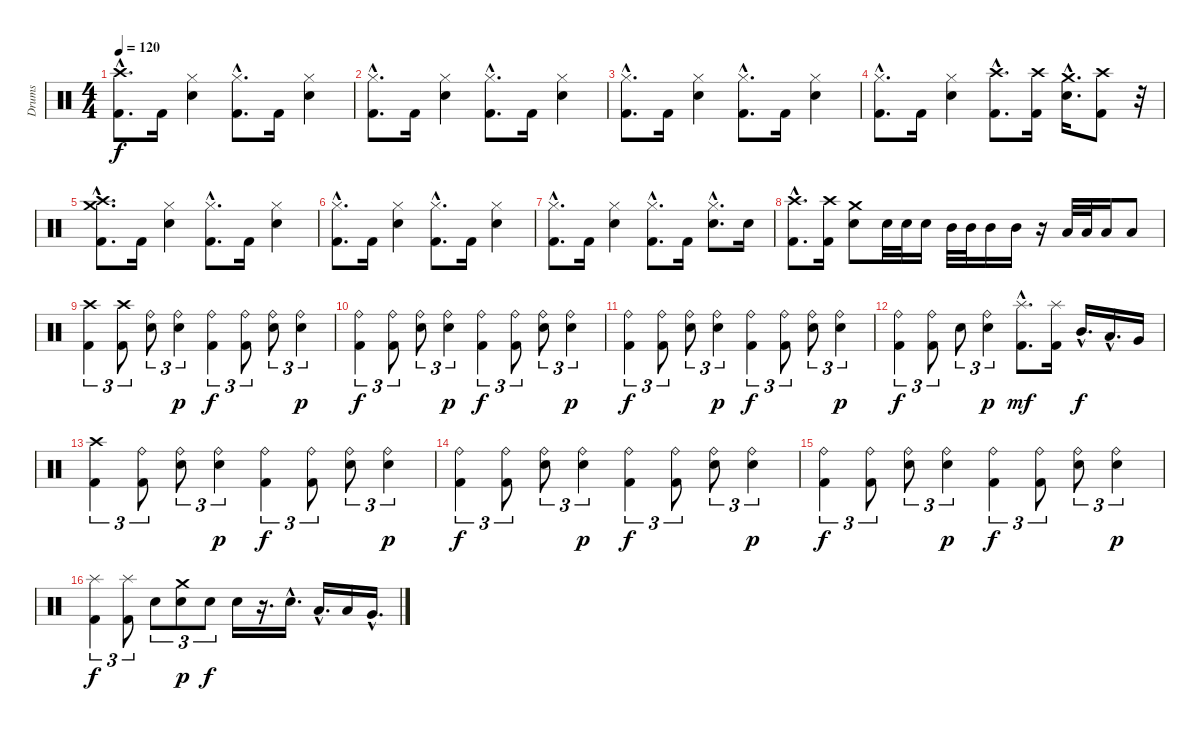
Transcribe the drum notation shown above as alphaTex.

\track ("Drums" "Drums") {instrument percussion}
\staff {score}
\articulation defaults
\ts (4 4)
\tempo 120
\clef neutral
\ks c
("Crash high (hit)"{hac} "Kick (hit) 2"{hac}).8{d dy f} "Kick (hit) 2".16 ("Hi-Hat (closed)" "Snare (hit) 2").4 ("Hi-Hat (closed)"{hac} "Kick (hit) 2"{hac}).8{d} "Kick (hit) 2".16 ("Hi-Hat (closed)" "Snare (hit) 2").4 |
("Hi-Hat (closed)"{hac} "Kick (hit) 2"{hac}).8{d} "Kick (hit) 2".16 ("Hi-Hat (closed)" "Snare (hit) 2").4 ("Hi-Hat (closed)"{hac} "Kick (hit) 2"{hac}).8{d} "Kick (hit) 2".16 ("Hi-Hat (closed)" "Snare (hit) 2").4 |
("Hi-Hat (closed)"{hac} "Kick (hit) 2"{hac}).8{d} "Kick (hit) 2".16 ("Hi-Hat (closed)" "Snare (hit) 2").4 ("Hi-Hat (closed)"{hac} "Kick (hit) 2"{hac}).8{d} "Kick (hit) 2".16 ("Hi-Hat (closed)" "Snare (hit) 2").4 |
("Hi-Hat (closed)"{hac} "Kick (hit) 2"{hac}).8{d} "Kick (hit) 2".16 ("Hi-Hat (closed)" "Snare (hit) 2").4 ("Crash high (hit)"{hac} "Kick (hit) 2"{hac}).8{d} ("Crash high (hit)" "Kick (hit) 2").16 ("Crash medium (hit)"{hac} "Snare (hit) 2"{hac}).16{d} ("Crash high (hit)" "Kick (hit) 2").8 r.32 |
("Crash high (hit)"{hac} "Crash medium (hit)"{hac} "Kick (hit) 2"{hac}).8{d} "Kick (hit) 2".16 ("Hi-Hat (closed)" "Snare (hit) 2").4 ("Hi-Hat (closed)"{hac} "Kick (hit) 2"{hac}).8{d} "Kick (hit) 2".16 ("Hi-Hat (closed)" "Snare (hit) 2").4 |
("Hi-Hat (closed)"{hac} "Kick (hit) 2"{hac}).8{d} "Kick (hit) 2".16 ("Hi-Hat (closed)" "Snare (hit) 2").4 ("Hi-Hat (closed)"{hac} "Kick (hit) 2"{hac}).8{d} "Kick (hit) 2".16 ("Hi-Hat (closed)" "Snare (hit) 2").4 |
("Hi-Hat (closed)"{hac} "Kick (hit) 2"{hac}).8{d} "Kick (hit) 2".16 ("Hi-Hat (closed)" "Snare (hit) 2").4 ("Hi-Hat (closed)"{hac} "Kick (hit) 2"{hac}).8{d} "Kick (hit) 2".16 ("Hi-Hat (closed)"{hac} "Snare (hit) 2"{hac}).8{d} "Snare (hit) 2".16 |
("Crash high (hit)"{hac} "Kick (hit) 2"{hac}).8{d} ("Crash high (hit)" "Kick (hit) 2").16 ("Crash medium (hit)" "Snare (hit) 2").8 "Snare (hit) 2".32 "Snare (hit) 2".32 "Snare (hit) 2".16 "Mid Tom (hit)".32 "Mid Tom (hit)".32 "Mid Tom (hit)".16 "Mid Tom (hit)".16 r.16 "Low Tom (hit)".32 "Low Tom (hit)".32 "Low Tom (hit)".16 "Low Tom (hit)".8 |
("Crash high (hit)" "Kick (hit) 2").4{tu (3 2)} ("Crash high (hit)" "Kick (hit) 2").8{tu (3 2)} ("Ride (bell)" "Snare (hit) 2").8{tu (3 2)} ("Ride (bell)" "Snare (hit) 2").4{tu (3 2) dy p} ("Ride (bell)" "Kick (hit) 2").4{tu (3 2) dy f} ("Ride (bell)" "Kick (hit) 2").8{tu (3 2)} ("Ride (bell)" "Snare (hit) 2").8{tu (3 2)} ("Ride (bell)" "Snare (hit) 2").4{tu (3 2) dy p} |
("Ride (bell)" "Kick (hit) 2").4{tu (3 2) dy f} ("Ride (bell)" "Kick (hit) 2").8{tu (3 2)} ("Ride (bell)" "Snare (hit) 2").8{tu (3 2)} ("Ride (bell)" "Snare (hit) 2").4{tu (3 2) dy p} ("Ride (bell)" "Kick (hit) 2").4{tu (3 2) dy f} ("Ride (bell)" "Kick (hit) 2").8{tu (3 2)} ("Ride (bell)" "Snare (hit) 2").8{tu (3 2)} ("Ride (bell)" "Snare (hit) 2").4{tu (3 2) dy p} |
("Ride (bell)" "Kick (hit) 2").4{tu (3 2) dy f} ("Ride (bell)" "Kick (hit) 2").8{tu (3 2)} ("Ride (bell)" "Snare (hit) 2").8{tu (3 2)} ("Ride (bell)" "Snare (hit) 2").4{tu (3 2) dy p} ("Ride (bell)" "Kick (hit) 2").4{tu (3 2) dy f} ("Ride (bell)" "Kick (hit) 2").8{tu (3 2)} ("Ride (bell)" "Snare (hit) 2").8{tu (3 2)} ("Ride (bell)" "Snare (hit) 2").4{tu (3 2) dy p} |
("Ride (bell)" "Kick (hit) 2").4{tu (3 2) dy f} ("Ride (bell)" "Kick (hit) 2").8{tu (3 2)} "Snare (hit) 2".8{tu (3 2)} ("Ride (bell)" "Snare (hit) 2").4{tu (3 2) dy p} ("Splash (hit)"{hac} "Kick (hit) 2"{hac}).8{d dy mf} ("Splash (hit)" "Kick (hit) 2").16 "Mid Tom (hit)"{hac}.16{d dy f} "Low Tom (hit)"{hac}.16{d} "Very Low Tom (hit)".16 |
("Crash high (hit)" "Kick (hit) 2").4{tu (3 2)} ("Ride (bell)" "Kick (hit) 2").8{tu (3 2)} ("Ride (bell)" "Snare (hit) 2").8{tu (3 2)} ("Ride (bell)" "Snare (hit) 2").4{tu (3 2) dy p} ("Ride (bell)" "Kick (hit) 2").4{tu (3 2) dy f} ("Ride (bell)" "Kick (hit) 2").8{tu (3 2)} ("Ride (bell)" "Snare (hit) 2").8{tu (3 2)} ("Ride (bell)" "Snare (hit) 2").4{tu (3 2) dy p} |
("Ride (bell)" "Kick (hit) 2").4{tu (3 2) dy f} ("Ride (bell)" "Kick (hit) 2").8{tu (3 2)} ("Ride (bell)" "Snare (hit) 2").8{tu (3 2)} ("Ride (bell)" "Snare (hit) 2").4{tu (3 2) dy p} ("Ride (bell)" "Kick (hit) 2").4{tu (3 2) dy f} ("Ride (bell)" "Kick (hit) 2").8{tu (3 2)} ("Ride (bell)" "Snare (hit) 2").8{tu (3 2)} ("Ride (bell)" "Snare (hit) 2").4{tu (3 2) dy p} |
("Ride (bell)" "Kick (hit) 2").4{tu (3 2) dy f} ("Ride (bell)" "Kick (hit) 2").8{tu (3 2)} ("Ride (bell)" "Snare (hit) 2").8{tu (3 2)} ("Ride (bell)" "Snare (hit) 2").4{tu (3 2) dy p} ("Ride (bell)" "Kick (hit) 2").4{tu (3 2) dy f} ("Ride (bell)" "Kick (hit) 2").8{tu (3 2)} ("Ride (bell)" "Snare (hit) 2").8{tu (3 2)} ("Ride (bell)" "Snare (hit) 2").4{tu (3 2) dy p} |
("Splash (hit)" "Kick (hit) 2").4{tu (3 2) dy f} ("Splash (hit)" "Kick (hit) 2").8{tu (3 2)} "Snare (hit) 2".8{tu (3 2)} ("Crash medium (hit)" "Snare (hit) 2").8{tu (3 2) dy p} "Snare (hit) 2".8{tu (3 2) dy f} "Snare (hit) 2".16 r.16{d} "Snare (hit) 2"{hac}.16{d} "Low Tom (hit)"{hac}.16{d} "Low Tom (hit)".16 "Very Low Tom (hit)"{hac}.16{d}
